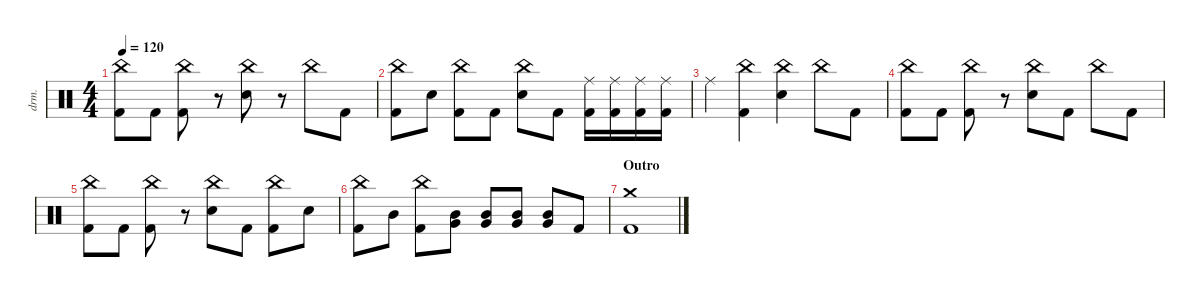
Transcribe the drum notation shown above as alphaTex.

\defaultSystemsLayout 4
\hideDynamics
\bracketExtendMode nobrackets
\track ("Drums - Mario" "drm.") {instrument percussion}
\staff {score}
\articulation defaults
\ts (4 4)
\tempo 120
\clef neutral
\ks c
("Kick (hit) 2" "China (hit)").8{dy ff beam Down} "Kick (hit) 2".8{beam Down} ("Kick (hit) 2" "China (hit)").8{beam Down} r.8{beam Down} ("Snare (hit) 2" "China (hit)").8{beam Down} r.8{beam Down} "China (hit)".8{beam Down} "Kick (hit) 2".8{beam Down} |
("Kick (hit) 2" "China (hit)").8{beam Down} "Snare (hit) 2".8{beam Down} ("Kick (hit) 2" "China (hit)").8{beam Down} "Kick (hit) 2".8{beam Down} ("China (hit)" "Snare (hit) 2").8{beam Down} "Kick (hit) 2".8{beam Down} ("Kick (hit) 2" "Ride (middle)").16{beam Down} ("Kick (hit) 2" "Ride (middle)").16{beam Down} ("Kick (hit) 2" "Ride (middle)").16{beam Down} ("Kick (hit) 2" "Ride (middle)").16{beam Down} |
"Ride (middle)".4{beam Down} ("Kick (hit) 2" "China (hit)").4{beam Down} ("Snare (hit) 2" "China (hit)").4{beam Down} "China (hit)".8{beam Down} "Kick (hit) 2".8{beam Down} |
("Kick (hit) 2" "China (hit)").8{beam Down} "Kick (hit) 2".8{beam Down} ("Kick (hit) 2" "China (hit)").8{beam Down} r.8{beam Down} ("Snare (hit) 2" "China (hit)").8{beam Down} "Kick (hit) 2".8{beam Down} "China (hit)".8{beam Down} "Kick (hit) 2".8{beam Down} |
("Kick (hit) 2" "China (hit)").8{beam Down} "Kick (hit) 2".8{beam Down} ("Kick (hit) 2" "China (hit)").8{beam Down} r.8{beam Down} ("Snare (hit) 2" "China (hit)").8{beam Down} "Kick (hit) 2".8{beam Down} ("China (hit)" "Kick (hit) 2").8{beam Down} "Snare (hit) 2".8{beam Down} |
("Kick (hit) 2" "China (hit)").8{beam Down} "Mid Tom (hit)".8{beam Down} ("Kick (hit) 2" "China (hit)").8{beam Down} ("Very Low Tom (hit)" "Mid Tom (hit)").8{beam Down} ("Very Low Tom (hit)" "Mid Tom (hit)").8{beam Up} ("Very Low Tom (hit)" "Mid Tom (hit)").8{beam Up} ("Very Low Tom (hit)" "Mid Tom (hit)").8{beam Up} "Kick (hit) 2".8{beam Up} |
\section ("" "Outro")
("Kick (hit) 2" "Crash medium (hit)").1{beam Down}
